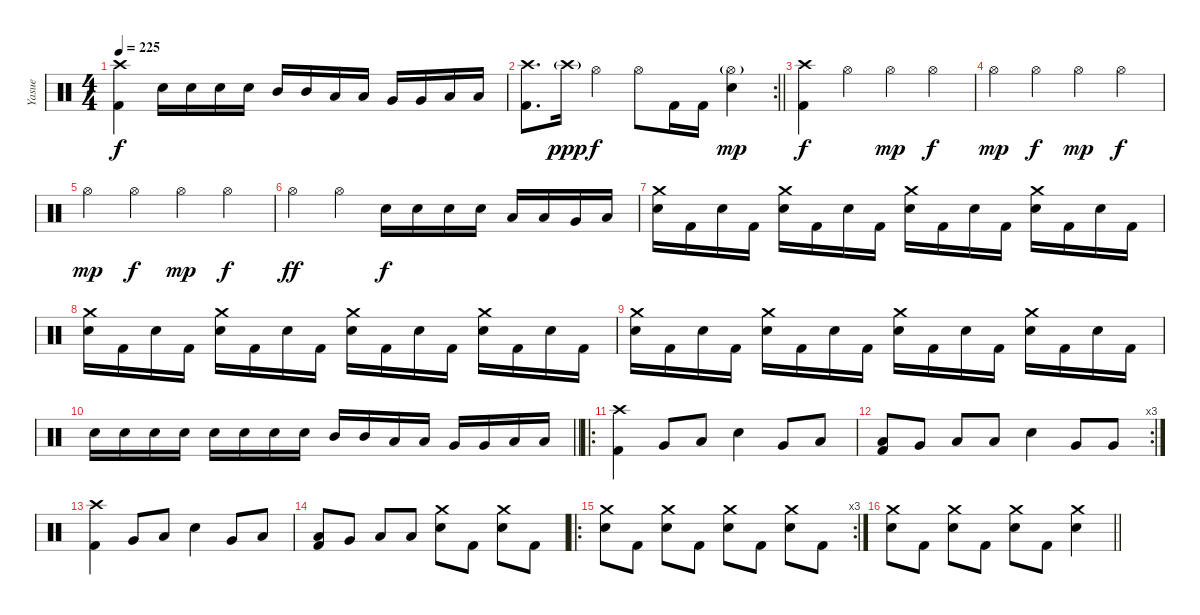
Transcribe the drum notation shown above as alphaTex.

\track ("Yasue" "Yasue") {instrument percussion}
\staff {score}
\articulation defaults
\ts (4 4)
\tempo 225
\clef neutral
\ks c
("Crash high (hit)" "Kick (hit) 2").4{dy f} "Electric Snare (hit)".16 "Electric Snare (hit)".16 "Electric Snare (hit)".16 "Electric Snare (hit)".16 "Mid Tom (hit)".16 "Mid Tom (hit)".16 "Low Tom (hit)".16 "Low Tom (hit)".16 "Very Low Tom (hit)".16 "Very Low Tom (hit)".16 "Low Floor Tom (hit)".16 "Low Floor Tom (hit)".16 |
\rc 2
\barLineRight lightlight
("Crash high (hit)" "Kick (hit) 2").8{d} "Crash high (hit)"{g}.16{dy ppp} "Hi-Hat (open)".4{dy f} "Hi-Hat (open)".8 "Kick (hit) 2".16 "Kick (hit) 2".16 ("Hi-Hat (open)"{g} "Electric Snare (hit)").4{dy mp} |
\section ("" "")
("Crash high (hit)" "Kick (hit) 2").4{dy f} "Hi-Hat (open)".4 "Hi-Hat (open)".4{dy mp} "Hi-Hat (open)".4{dy f} |
"Hi-Hat (open)".4{dy mp} "Hi-Hat (open)".4{dy f} "Hi-Hat (open)".4{dy mp} "Hi-Hat (open)".4{dy f} |
"Hi-Hat (open)".4{dy mp} "Hi-Hat (open)".4{dy f} "Hi-Hat (open)".4{dy mp} "Hi-Hat (open)".4{dy f} |
"Hi-Hat (open)".4{dy ff} "Hi-Hat (open)".4 "Electric Snare (hit)".16{dy f} "Electric Snare (hit)".16 "Electric Snare (hit)".16 "Electric Snare (hit)".16 "Low Tom (hit)".16 "Low Tom (hit)".16 "Very Low Tom (hit)".16 "Low Floor Tom (hit)".16 |
("Crash medium (hit)" "Electric Snare (hit)").16 "Kick (hit) 2".16 "Electric Snare (hit)".16 "Kick (hit) 2".16 ("Crash medium (hit)" "Electric Snare (hit)").16 "Kick (hit) 2".16 "Electric Snare (hit)".16 "Kick (hit) 2".16 ("Crash medium (hit)" "Electric Snare (hit)").16 "Kick (hit) 2".16 "Electric Snare (hit)".16 "Kick (hit) 2".16 ("Crash medium (hit)" "Electric Snare (hit)").16 "Kick (hit) 2".16 "Electric Snare (hit)".16 "Kick (hit) 2".16 |
("Crash medium (hit)" "Electric Snare (hit)").16 "Kick (hit) 2".16 "Electric Snare (hit)".16 "Kick (hit) 2".16 ("Crash medium (hit)" "Electric Snare (hit)").16 "Kick (hit) 2".16 "Electric Snare (hit)".16 "Kick (hit) 2".16 ("Crash medium (hit)" "Electric Snare (hit)").16 "Kick (hit) 2".16 "Electric Snare (hit)".16 "Kick (hit) 2".16 ("Crash medium (hit)" "Electric Snare (hit)").16 "Kick (hit) 2".16 "Electric Snare (hit)".16 "Kick (hit) 2".16 |
("Crash medium (hit)" "Electric Snare (hit)").16 "Kick (hit) 2".16 "Electric Snare (hit)".16 "Kick (hit) 2".16 ("Crash medium (hit)" "Electric Snare (hit)").16 "Kick (hit) 2".16 "Electric Snare (hit)".16 "Kick (hit) 2".16 ("Crash medium (hit)" "Electric Snare (hit)").16 "Kick (hit) 2".16 "Electric Snare (hit)".16 "Kick (hit) 2".16 ("Crash medium (hit)" "Electric Snare (hit)").16 "Kick (hit) 2".16 "Electric Snare (hit)".16 "Kick (hit) 2".16 |
\barLineRight lightlight "Electric Snare (hit)".16 "Electric Snare (hit)".16 "Electric Snare (hit)".16 "Electric Snare (hit)".16 "Electric Snare (hit)".16 "Electric Snare (hit)".16 "Electric Snare (hit)".16 "Electric Snare (hit)".16 "Mid Tom (hit)".16 "Mid Tom (hit)".16 "Low Tom (hit)".16 "Low Tom (hit)".16 "Very Low Tom (hit)".16 "Very Low Tom (hit)".16 "Low Floor Tom (hit)".16 "Low Floor Tom (hit)".16
|
\ro
\section ("" "")
("Crash high (hit)" "Kick (hit) 2").4 "Very Low Tom (hit)".8 "Low Floor Tom (hit)".8 "Electric Snare (hit)".4 "Very Low Tom (hit)".8 "Low Tom (hit)".8 |
\rc 3
("Low Tom (hit)" "Kick (hit) 2").8 "Very Low Tom (hit)".8 "Low Floor Tom (hit)".8 "Low Floor Tom (hit)".8 "Electric Snare (hit)".4 "Very Low Tom (hit)".8 "Very Low Tom (hit)".8 |
("Crash high (hit)" "Kick (hit) 2").4 "Very Low Tom (hit)".8 "Low Floor Tom (hit)".8 "Electric Snare (hit)".4 "Very Low Tom (hit)".8 "Low Tom (hit)".8 |
("Low Tom (hit)" "Kick (hit) 2").8 "Very Low Tom (hit)".8 "Low Floor Tom (hit)".8 "Low Floor Tom (hit)".8 ("Crash medium (hit)" "Electric Snare (hit)").8 "Kick (hit) 2".8 ("Crash medium (hit)" "Electric Snare (hit)").8 "Kick (hit) 2".8 |
\ro
\rc 3
("Crash medium (hit)" "Electric Snare (hit)").8 "Kick (hit) 2".8 ("Crash medium (hit)" "Electric Snare (hit)").8 "Kick (hit) 2".8 ("Crash medium (hit)" "Electric Snare (hit)").8 "Kick (hit) 2".8 ("Crash medium (hit)" "Electric Snare (hit)").8 "Kick (hit) 2".8 |
\barLineRight lightlight
("Crash medium (hit)" "Electric Snare (hit)").8 "Kick (hit) 2".8 ("Crash medium (hit)" "Electric Snare (hit)").8 "Kick (hit) 2".8 ("Crash medium (hit)" "Electric Snare (hit)").8 "Kick (hit) 2".8 ("Crash medium (hit)" "Electric Snare (hit)").4
